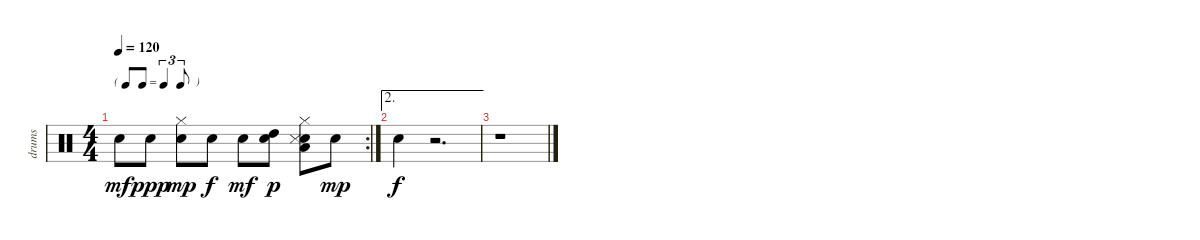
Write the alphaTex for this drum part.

\track ("drums" "drums") {instrument percussion}
\staff {score}
\articulation defaults
\rc 2
\ts (4 4)
\tf triplet8th
\tempo 120
\clef neutral
\ks c "Snare (hit) 2".8{dy mf} "Snare (hit) 2".8{dy ppp}
("Snare (hit) 2" "Hi-Hat (closed)").8{dy mp} "Snare (hit) 2".8{dy f} "Snare (hit) 2".8{dy mf} ("Snare (hit) 2" "High Tom (hit)").8{dy p} ("Snare (hit) 2" "Hi-Hat (closed)" "Snare (side stick) 3" "Low Tom (hit)").8 "Snare (hit) 2".8{dy mp} |
\ae 2 "Snare (hit) 2".4{dy f}
r.2{d} |
r.1
